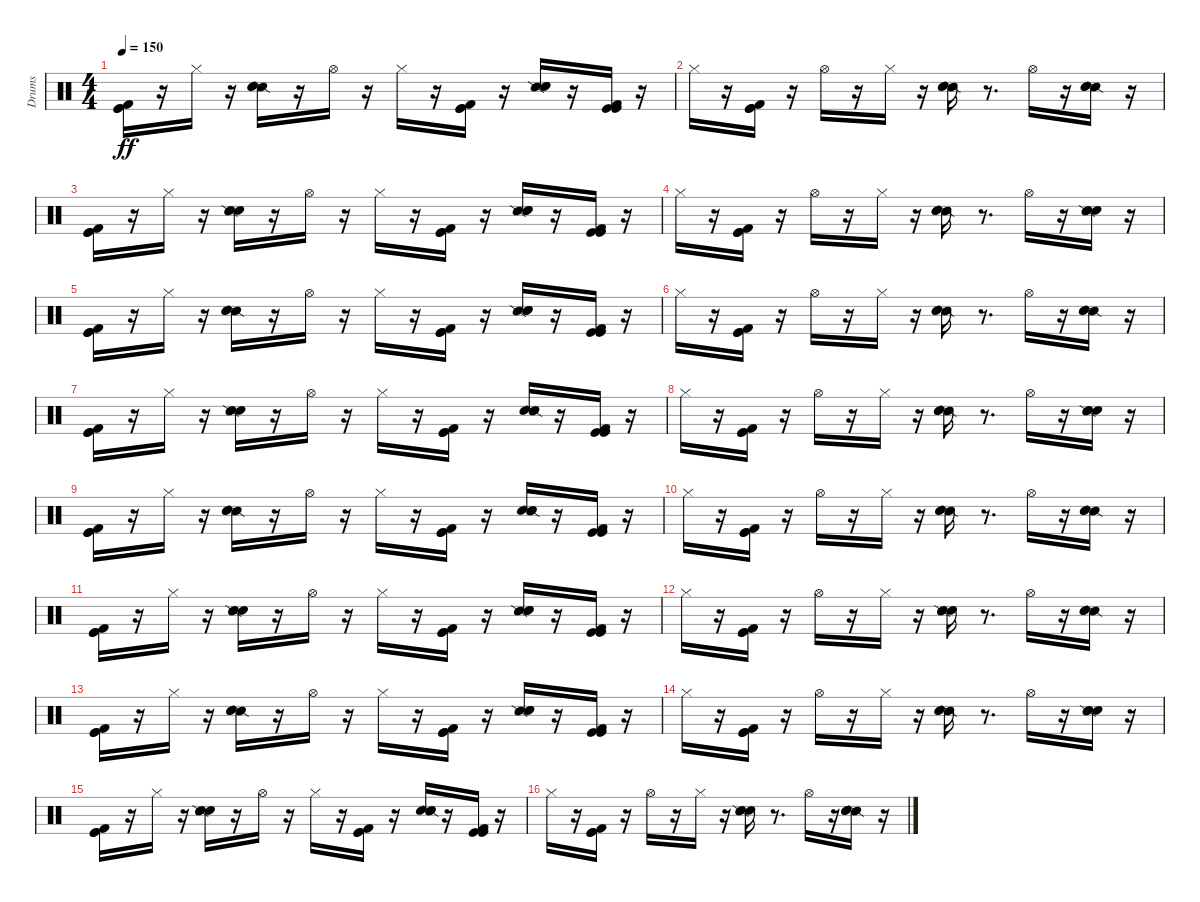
\track ("Drums" "Drums") {instrument percussion}
\staff {score}
\articulation defaults
\ts (4 4)
\tempo 150
\clef neutral
\ks c
("Kick (hit)" "Kick (hit) 2" "Kick (hit)").16{dy ff} r.16 "Hi-Hat (closed)".16 r.16 ("Snare (side stick) 2" "Metronome (bell)" "Electric Snare (hit)").16 r.16 "Hi-Hat (open)".16 r.16 "Hi-Hat (closed)".16 r.16 ("Kick (hit)" "Kick (hit) 2" "Kick (hit)").16 r.16 ("Snare (side stick) 2" "Metronome (bell)" "Electric Snare (hit)").16 r.16 ("Kick (hit)" "Kick (hit) 2" "Kick (hit)").16 r.16 |
"Hi-Hat (closed)".16 r.16 ("Kick (hit)" "Kick (hit) 2" "Kick (hit)").16 r.16 "Hi-Hat (open)".16 r.16 "Hi-Hat (closed)".16 r.16 ("Snare (side stick) 2" "Metronome (bell)" "Electric Snare (hit)").16 r.8{d} "Hi-Hat (open)".16 r.16 ("Snare (side stick) 2" "Metronome (bell)" "Electric Snare (hit)").16 r.16 |
("Kick (hit)" "Kick (hit) 2" "Kick (hit)").16 r.16 "Hi-Hat (closed)".16 r.16 ("Metronome (bell)" "Snare (side stick) 2" "Electric Snare (hit)").16 r.16 "Hi-Hat (open)".16 r.16 "Hi-Hat (closed)".16 r.16 ("Kick (hit)" "Kick (hit) 2" "Kick (hit)").16 r.16 ("Snare (side stick) 2" "Metronome (bell)" "Electric Snare (hit)").16 r.16 ("Kick (hit)" "Kick (hit) 2" "Kick (hit)").16 r.16 |
"Hi-Hat (closed)".16 r.16 ("Kick (hit)" "Kick (hit) 2" "Kick (hit)").16 r.16 "Hi-Hat (open)".16 r.16 "Hi-Hat (closed)".16 r.16 ("Snare (side stick) 2" "Metronome (bell)" "Electric Snare (hit)").16 r.8{d} "Hi-Hat (open)".16 r.16 ("Metronome (bell)" "Snare (side stick) 2" "Electric Snare (hit)").16 r.16 |
("Kick (hit)" "Kick (hit) 2" "Kick (hit)").16 r.16 "Hi-Hat (closed)".16 r.16 ("Snare (side stick) 2" "Metronome (bell)" "Electric Snare (hit)").16 r.16 "Hi-Hat (open)".16 r.16 "Hi-Hat (closed)".16 r.16 ("Kick (hit)" "Kick (hit) 2" "Kick (hit)").16 r.16 ("Snare (side stick) 2" "Metronome (bell)" "Electric Snare (hit)").16 r.16 ("Kick (hit)" "Kick (hit) 2" "Kick (hit)").16 r.16 |
"Hi-Hat (closed)".16 r.16 ("Kick (hit)" "Kick (hit) 2" "Kick (hit)").16 r.16 "Hi-Hat (open)".16 r.16 "Hi-Hat (closed)".16 r.16 ("Snare (side stick) 2" "Metronome (bell)" "Electric Snare (hit)").16 r.8{d} "Hi-Hat (open)".16 r.16 ("Snare (side stick) 2" "Metronome (bell)" "Electric Snare (hit)").16 r.16 |
("Kick (hit)" "Kick (hit) 2" "Kick (hit)").16 r.16 "Hi-Hat (closed)".16 r.16 ("Metronome (bell)" "Snare (side stick) 2" "Electric Snare (hit)").16 r.16 "Hi-Hat (open)".16 r.16 "Hi-Hat (closed)".16 r.16 ("Kick (hit)" "Kick (hit) 2" "Kick (hit)").16 r.16 ("Metronome (bell)" "Snare (side stick) 2" "Electric Snare (hit)").16 r.16 ("Kick (hit)" "Kick (hit) 2" "Kick (hit)").16 r.16 |
"Hi-Hat (closed)".16 r.16 ("Kick (hit)" "Kick (hit) 2" "Kick (hit)").16 r.16 "Hi-Hat (open)".16 r.16 "Hi-Hat (closed)".16 r.16 ("Snare (side stick) 2" "Metronome (bell)" "Electric Snare (hit)").16 r.8{d} "Hi-Hat (open)".16 r.16 ("Metronome (bell)" "Snare (side stick) 2" "Electric Snare (hit)").16 r.16 |
("Kick (hit)" "Kick (hit) 2" "Kick (hit)").16 r.16 "Hi-Hat (closed)".16 r.16 ("Snare (side stick) 2" "Metronome (bell)" "Electric Snare (hit)").16 r.16 "Hi-Hat (open)".16 r.16 "Hi-Hat (closed)".16 r.16 ("Kick (hit)" "Kick (hit) 2" "Kick (hit)").16 r.16 ("Metronome (bell)" "Snare (side stick) 2" "Electric Snare (hit)").16 r.16 ("Kick (hit)" "Kick (hit) 2" "Kick (hit)").16 r.16 |
"Hi-Hat (closed)".16 r.16 ("Kick (hit)" "Kick (hit) 2" "Kick (hit)").16 r.16 "Hi-Hat (open)".16 r.16 "Hi-Hat (closed)".16 r.16 ("Snare (side stick) 2" "Metronome (bell)" "Electric Snare (hit)").16 r.8{d} "Hi-Hat (open)".16 r.16 ("Snare (side stick) 2" "Metronome (bell)" "Electric Snare (hit)").16 r.16 |
("Kick (hit)" "Kick (hit) 2" "Kick (hit)").16 r.16 "Hi-Hat (closed)".16 r.16 ("Metronome (bell)" "Snare (side stick) 2" "Electric Snare (hit)").16 r.16 "Hi-Hat (open)".16 r.16 "Hi-Hat (closed)".16 r.16 ("Kick (hit)" "Kick (hit) 2" "Kick (hit)").16 r.16 ("Snare (side stick) 2" "Metronome (bell)" "Electric Snare (hit)").16 r.16 ("Kick (hit)" "Kick (hit) 2" "Kick (hit)").16 r.16 |
"Hi-Hat (closed)".16 r.16 ("Kick (hit)" "Kick (hit) 2" "Kick (hit)").16 r.16 "Hi-Hat (open)".16 r.16 "Hi-Hat (closed)".16 r.16 ("Metronome (bell)" "Snare (side stick) 2" "Electric Snare (hit)").16 r.8{d} "Hi-Hat (open)".16 r.16 ("Snare (side stick) 2" "Metronome (bell)" "Electric Snare (hit)").16 r.16 |
("Kick (hit)" "Kick (hit) 2" "Kick (hit)").16 r.16 "Hi-Hat (closed)".16 r.16 ("Snare (side stick) 2" "Metronome (bell)" "Electric Snare (hit)").16 r.16 "Hi-Hat (open)".16 r.16 "Hi-Hat (closed)".16 r.16 ("Kick (hit)" "Kick (hit) 2" "Kick (hit)").16 r.16 ("Snare (side stick) 2" "Metronome (bell)" "Electric Snare (hit)").16 r.16 ("Kick (hit)" "Kick (hit) 2" "Kick (hit)").16 r.16 |
"Hi-Hat (closed)".16 r.16 ("Kick (hit)" "Kick (hit) 2" "Kick (hit)").16 r.16 "Hi-Hat (open)".16 r.16 "Hi-Hat (closed)".16 r.16 ("Snare (side stick) 2" "Metronome (bell)" "Electric Snare (hit)").16 r.8{d} "Hi-Hat (open)".16 r.16 ("Metronome (bell)" "Snare (side stick) 2" "Electric Snare (hit)").16 r.16 |
("Kick (hit)" "Kick (hit) 2" "Kick (hit)").16 r.16 "Hi-Hat (closed)".16 r.16 ("Metronome (bell)" "Snare (side stick) 2" "Electric Snare (hit)").16 r.16 "Hi-Hat (open)".16 r.16 "Hi-Hat (closed)".16 r.16 ("Kick (hit)" "Kick (hit) 2" "Kick (hit)").16 r.16 ("Metronome (bell)" "Snare (side stick) 2" "Electric Snare (hit)").16 r.16 ("Kick (hit)" "Kick (hit) 2" "Kick (hit)").16 r.16 |
"Hi-Hat (closed)".16 r.16 ("Kick (hit)" "Kick (hit) 2" "Kick (hit)").16 r.16 "Hi-Hat (open)".16 r.16 "Hi-Hat (closed)".16 r.16 ("Metronome (bell)" "Snare (side stick) 2" "Electric Snare (hit)").16 r.8{d} "Hi-Hat (open)".16 r.16 ("Snare (side stick) 2" "Metronome (bell)" "Electric Snare (hit)").16 r.16
